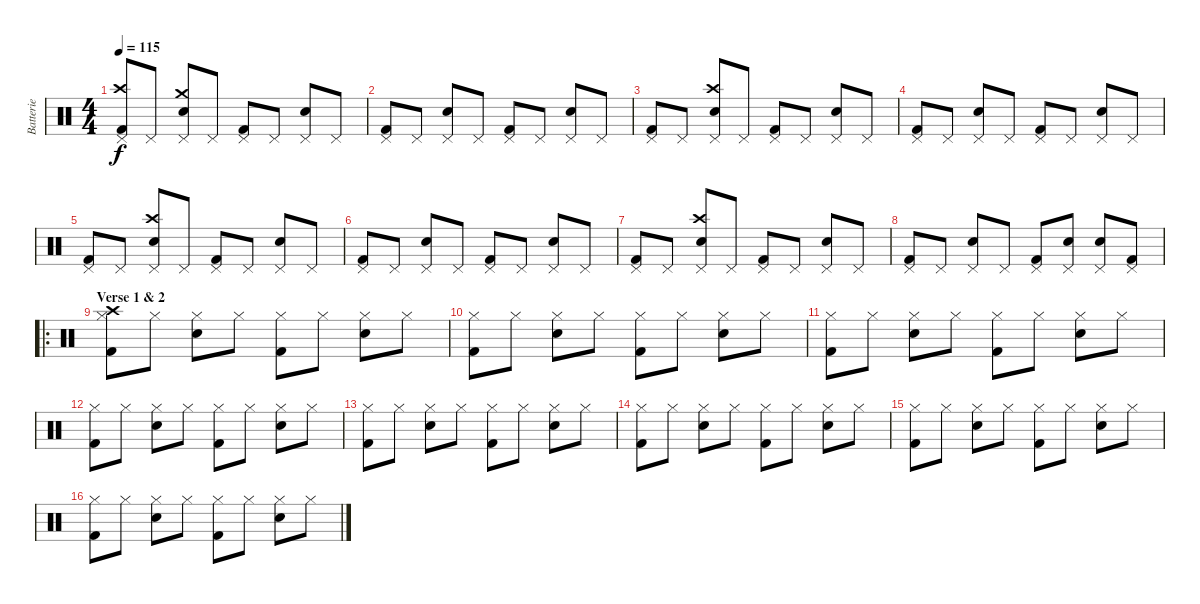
\track ("Batterie" "Batterie") {instrument percussion}
\staff {score}
\articulation defaults
\ts (4 4)
\tempo 115
\clef neutral
\ks c
("Pedal Hi-Hat (hit)" "Crash high (hit)" "Kick (hit) 2").8{dy f} "Pedal Hi-Hat (hit)".8 ("Pedal Hi-Hat (hit)" "Crash medium (hit)" "Snare (hit) 2").8 "Pedal Hi-Hat (hit)".8 ("Pedal Hi-Hat (hit)" "Kick (hit) 2").8 "Pedal Hi-Hat (hit)".8 ("Pedal Hi-Hat (hit)" "Snare (hit) 2").8 "Pedal Hi-Hat (hit)".8 |
("Pedal Hi-Hat (hit)" "Kick (hit) 2").8 "Pedal Hi-Hat (hit)".8 ("Pedal Hi-Hat (hit)" "Snare (hit) 2").8 "Pedal Hi-Hat (hit)".8 ("Pedal Hi-Hat (hit)" "Kick (hit) 2").8 "Pedal Hi-Hat (hit)".8 ("Pedal Hi-Hat (hit)" "Snare (hit) 2").8 "Pedal Hi-Hat (hit)".8 |
("Pedal Hi-Hat (hit)" "Kick (hit) 2").8 "Pedal Hi-Hat (hit)".8 ("Pedal Hi-Hat (hit)" "Crash high (hit)" "Snare (hit) 2").8 "Pedal Hi-Hat (hit)".8 ("Pedal Hi-Hat (hit)" "Kick (hit) 2").8 "Pedal Hi-Hat (hit)".8 ("Pedal Hi-Hat (hit)" "Snare (hit) 2").8 "Pedal Hi-Hat (hit)".8 |
("Pedal Hi-Hat (hit)" "Kick (hit) 2").8 "Pedal Hi-Hat (hit)".8 ("Pedal Hi-Hat (hit)" "Snare (hit) 2").8 "Pedal Hi-Hat (hit)".8 ("Pedal Hi-Hat (hit)" "Kick (hit) 2").8 "Pedal Hi-Hat (hit)".8 ("Pedal Hi-Hat (hit)" "Snare (hit) 2").8 "Pedal Hi-Hat (hit)".8 |
("Pedal Hi-Hat (hit)" "Kick (hit) 2").8 "Pedal Hi-Hat (hit)".8 ("Pedal Hi-Hat (hit)" "Crash high (hit)" "Snare (hit) 2").8 "Pedal Hi-Hat (hit)".8 ("Pedal Hi-Hat (hit)" "Kick (hit) 2").8 "Pedal Hi-Hat (hit)".8 ("Pedal Hi-Hat (hit)" "Snare (hit) 2").8 "Pedal Hi-Hat (hit)".8 |
("Pedal Hi-Hat (hit)" "Kick (hit) 2").8 "Pedal Hi-Hat (hit)".8 ("Pedal Hi-Hat (hit)" "Snare (hit) 2").8 "Pedal Hi-Hat (hit)".8 ("Pedal Hi-Hat (hit)" "Kick (hit) 2").8 "Pedal Hi-Hat (hit)".8 ("Pedal Hi-Hat (hit)" "Snare (hit) 2").8 "Pedal Hi-Hat (hit)".8 |
("Pedal Hi-Hat (hit)" "Kick (hit) 2").8 "Pedal Hi-Hat (hit)".8 ("Pedal Hi-Hat (hit)" "Crash high (hit)" "Snare (hit) 2").8 "Pedal Hi-Hat (hit)".8 ("Pedal Hi-Hat (hit)" "Kick (hit) 2").8 "Pedal Hi-Hat (hit)".8 ("Pedal Hi-Hat (hit)" "Snare (hit) 2").8 "Pedal Hi-Hat (hit)".8 |
("Pedal Hi-Hat (hit)" "Kick (hit) 2").8 "Pedal Hi-Hat (hit)".8 ("Pedal Hi-Hat (hit)" "Snare (hit) 2").8 "Pedal Hi-Hat (hit)".8 ("Pedal Hi-Hat (hit)" "Kick (hit) 2").8 ("Pedal Hi-Hat (hit)" "Snare (hit) 2").8 ("Pedal Hi-Hat (hit)" "Snare (hit) 2").8 ("Pedal Hi-Hat (hit)" "Kick (hit) 2").8 |
\ro
\section ("" "Verse 1 & 2")
("Hi-Hat (closed)" "Crash high (hit)" "Kick (hit) 2").8 "Hi-Hat (closed)".8 ("Hi-Hat (closed)" "Snare (hit) 2").8 "Hi-Hat (closed)".8 ("Hi-Hat (closed)" "Kick (hit) 2").8 "Hi-Hat (closed)".8 ("Hi-Hat (closed)" "Snare (hit) 2").8 "Hi-Hat (closed)".8 |
("Hi-Hat (closed)" "Kick (hit) 2").8 "Hi-Hat (closed)".8 ("Hi-Hat (closed)" "Snare (hit) 2").8 "Hi-Hat (closed)".8 ("Hi-Hat (closed)" "Kick (hit) 2").8 "Hi-Hat (closed)".8 ("Hi-Hat (closed)" "Snare (hit) 2").8 "Hi-Hat (closed)".8 |
("Hi-Hat (closed)" "Kick (hit) 2").8 "Hi-Hat (closed)".8 ("Hi-Hat (closed)" "Snare (hit) 2").8 "Hi-Hat (closed)".8 ("Hi-Hat (closed)" "Kick (hit) 2").8 "Hi-Hat (closed)".8 ("Hi-Hat (closed)" "Snare (hit) 2").8 "Hi-Hat (closed)".8 |
("Hi-Hat (closed)" "Kick (hit) 2").8 "Hi-Hat (closed)".8 ("Hi-Hat (closed)" "Snare (hit) 2").8 "Hi-Hat (closed)".8 ("Hi-Hat (closed)" "Kick (hit) 2").8 "Hi-Hat (closed)".8 ("Hi-Hat (closed)" "Snare (hit) 2").8 "Hi-Hat (closed)".8 |
("Hi-Hat (closed)" "Kick (hit) 2").8 "Hi-Hat (closed)".8 ("Hi-Hat (closed)" "Snare (hit) 2").8 "Hi-Hat (closed)".8 ("Hi-Hat (closed)" "Kick (hit) 2").8 "Hi-Hat (closed)".8 ("Hi-Hat (closed)" "Snare (hit) 2").8 "Hi-Hat (closed)".8 |
("Hi-Hat (closed)" "Kick (hit) 2").8 "Hi-Hat (closed)".8 ("Hi-Hat (closed)" "Snare (hit) 2").8 "Hi-Hat (closed)".8 ("Hi-Hat (closed)" "Kick (hit) 2").8 "Hi-Hat (closed)".8 ("Hi-Hat (closed)" "Snare (hit) 2").8 "Hi-Hat (closed)".8 |
("Hi-Hat (closed)" "Kick (hit) 2").8 "Hi-Hat (closed)".8 ("Hi-Hat (closed)" "Snare (hit) 2").8 "Hi-Hat (closed)".8 ("Hi-Hat (closed)" "Kick (hit) 2").8 "Hi-Hat (closed)".8 ("Hi-Hat (closed)" "Snare (hit) 2").8 "Hi-Hat (closed)".8 |
("Hi-Hat (closed)" "Kick (hit) 2").8 "Hi-Hat (closed)".8 ("Hi-Hat (closed)" "Snare (hit) 2").8 "Hi-Hat (closed)".8 ("Hi-Hat (closed)" "Kick (hit) 2").8 "Hi-Hat (closed)".8 ("Hi-Hat (closed)" "Snare (hit) 2").8 "Hi-Hat (closed)".8
